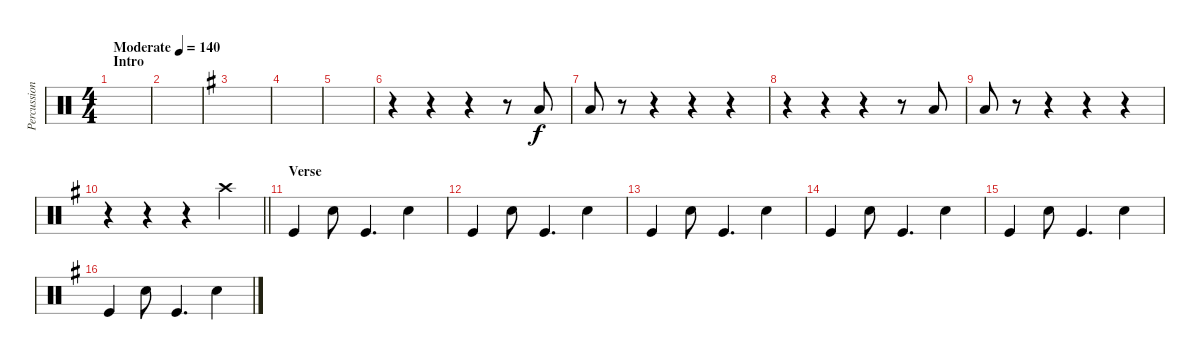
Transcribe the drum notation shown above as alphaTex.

\track ("Percussion" "Percussion") {instrument percussion}
\staff {score}
\articulation defaults
\ts (4 4)
\section ("" "Intro")
\tempo (140 "Moderate")
\clef neutral
\ks c
|
|
\ks g
|
|
|
r.4 r.4 r.4 r.8 "Low Floor Tom (hit)".8 |
"Low Floor Tom (hit)".8 r.8 r.4 r.4 r.4 |
r.4 r.4 r.4 r.8 "Low Floor Tom (hit)".8 |
"Low Floor Tom (hit)".8 r.8 r.4 r.4 r.4 |
\barLineRight lightlight
r.4 r.4 r.4 "Crash high (hit)".4 |
\section ("" "Verse")
"Kick (hit)".4 "Electric Snare (hit)".8 "Kick (hit)".4{d} "Electric Snare (hit)".4 |
"Kick (hit)".4 "Electric Snare (hit)".8 "Kick (hit)".4{d} "Electric Snare (hit)".4 |
"Kick (hit)".4 "Electric Snare (hit)".8 "Kick (hit)".4{d} "Electric Snare (hit)".4 |
"Kick (hit)".4 "Electric Snare (hit)".8 "Kick (hit)".4{d} "Electric Snare (hit)".4 |
"Kick (hit)".4 "Electric Snare (hit)".8 "Kick (hit)".4{d} "Electric Snare (hit)".4 |
"Kick (hit)".4 "Electric Snare (hit)".8 "Kick (hit)".4{d} "Electric Snare (hit)".4
